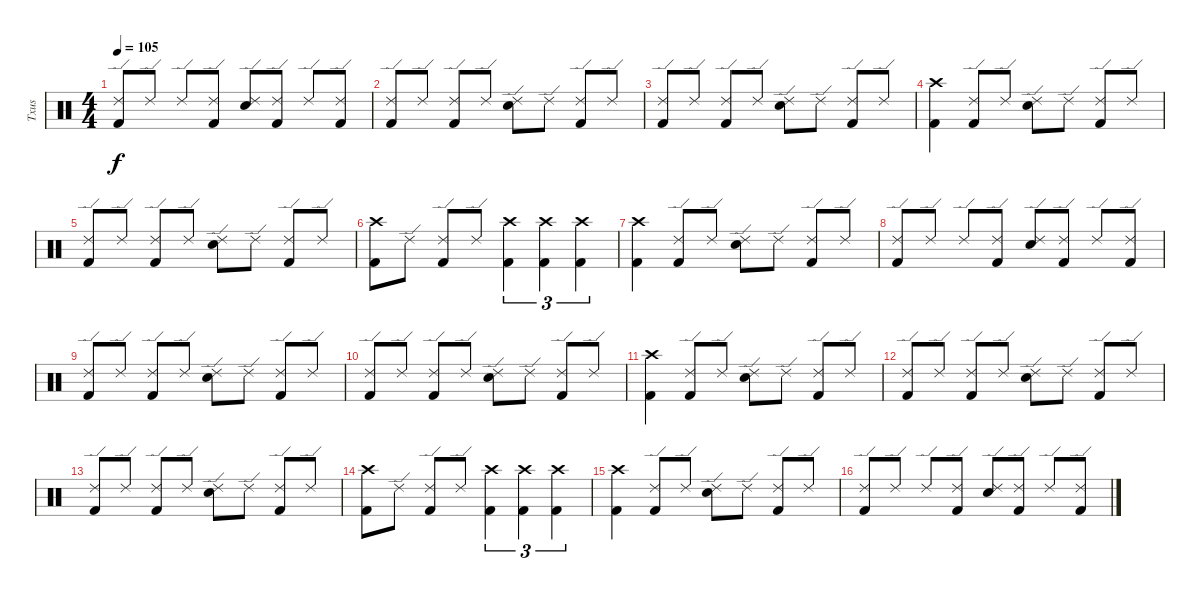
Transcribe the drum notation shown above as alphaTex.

\track ("Txus" "Txus") {instrument percussion}
\staff {score}
\articulation defaults
\ts (4 4)
\tempo 105
\clef neutral
\ks c
("Ride (edge) 2" "Kick (hit) 2").8{dy f} "Ride (edge) 2".8 "Ride (edge) 2".8 ("Ride (edge) 2" "Kick (hit) 2").8 ("Ride (edge) 2" "Electric Snare (hit)").8 ("Ride (edge) 2" "Kick (hit) 2").8 "Ride (edge) 2".8 ("Ride (edge) 2" "Kick (hit) 2").8 |
("Ride (edge) 2" "Kick (hit) 2").8 "Ride (edge) 2".8 ("Ride (edge) 2" "Kick (hit) 2").8 "Ride (edge) 2".8 ("Ride (edge) 2" "Electric Snare (hit)").8 "Ride (edge) 2".8 ("Ride (edge) 2" "Kick (hit) 2").8 "Ride (edge) 2".8 |
("Ride (edge) 2" "Kick (hit) 2").8 "Ride (edge) 2".8 ("Ride (edge) 2" "Kick (hit) 2").8 "Ride (edge) 2".8 ("Ride (edge) 2" "Electric Snare (hit)").8 "Ride (edge) 2".8 ("Ride (edge) 2" "Kick (hit) 2").8 "Ride (edge) 2".8 |
("Crash high (hit)" "Kick (hit) 2").4 ("Ride (edge) 2" "Kick (hit) 2").8 "Ride (edge) 2".8 ("Ride (edge) 2" "Electric Snare (hit)").8 "Ride (edge) 2".8 ("Ride (edge) 2" "Kick (hit) 2").8 "Ride (edge) 2".8 |
("Ride (edge) 2" "Kick (hit) 2").8 "Ride (edge) 2".8 ("Ride (edge) 2" "Kick (hit) 2").8 "Ride (edge) 2".8 ("Ride (edge) 2" "Electric Snare (hit)").8 "Ride (edge) 2".8 ("Ride (edge) 2" "Kick (hit) 2").8 "Ride (edge) 2".8 |
("Crash high (hit)" "Kick (hit) 2").8 "Ride (edge) 2".8 ("Ride (edge) 2" "Kick (hit) 2").8 "Ride (edge) 2".8 ("Crash high (hit)" "Kick (hit) 2").4{tu (3 2)} ("Crash high (hit)" "Kick (hit) 2").4{tu (3 2)} ("Crash high (hit)" "Kick (hit) 2").4{tu (3 2)} |
("Crash high (hit)" "Kick (hit) 2").4 ("Ride (edge) 2" "Kick (hit) 2").8 "Ride (edge) 2".8 ("Ride (edge) 2" "Electric Snare (hit)").8 "Ride (edge) 2".8 ("Ride (edge) 2" "Kick (hit) 2").8 "Ride (edge) 2".8 |
("Ride (edge) 2" "Kick (hit) 2").8 "Ride (edge) 2".8 "Ride (edge) 2".8 ("Ride (edge) 2" "Kick (hit) 2").8 ("Ride (edge) 2" "Electric Snare (hit)").8 ("Ride (edge) 2" "Kick (hit) 2").8 "Ride (edge) 2".8 ("Ride (edge) 2" "Kick (hit) 2").8 |
("Ride (edge) 2" "Kick (hit) 2").8 "Ride (edge) 2".8 ("Ride (edge) 2" "Kick (hit) 2").8 "Ride (edge) 2".8 ("Ride (edge) 2" "Electric Snare (hit)").8 "Ride (edge) 2".8 ("Ride (edge) 2" "Kick (hit) 2").8 "Ride (edge) 2".8 |
("Ride (edge) 2" "Kick (hit) 2").8 "Ride (edge) 2".8 ("Ride (edge) 2" "Kick (hit) 2").8 "Ride (edge) 2".8 ("Ride (edge) 2" "Electric Snare (hit)").8 "Ride (edge) 2".8 ("Ride (edge) 2" "Kick (hit) 2").8 "Ride (edge) 2".8 |
("Crash high (hit)" "Kick (hit) 2").4 ("Ride (edge) 2" "Kick (hit) 2").8 "Ride (edge) 2".8 ("Ride (edge) 2" "Electric Snare (hit)").8 "Ride (edge) 2".8 ("Ride (edge) 2" "Kick (hit) 2").8 "Ride (edge) 2".8 |
("Ride (edge) 2" "Kick (hit) 2").8 "Ride (edge) 2".8 ("Ride (edge) 2" "Kick (hit) 2").8 "Ride (edge) 2".8 ("Ride (edge) 2" "Electric Snare (hit)").8 "Ride (edge) 2".8 ("Ride (edge) 2" "Kick (hit) 2").8 "Ride (edge) 2".8 |
("Ride (edge) 2" "Kick (hit) 2").8 "Ride (edge) 2".8 ("Ride (edge) 2" "Kick (hit) 2").8 "Ride (edge) 2".8 ("Ride (edge) 2" "Electric Snare (hit)").8 "Ride (edge) 2".8 ("Ride (edge) 2" "Kick (hit) 2").8 "Ride (edge) 2".8 |
("Crash high (hit)" "Kick (hit) 2").8 "Ride (edge) 2".8 ("Ride (edge) 2" "Kick (hit) 2").8 "Ride (edge) 2".8 ("Crash high (hit)" "Kick (hit) 2").4{tu (3 2)} ("Crash high (hit)" "Kick (hit) 2").4{tu (3 2)} ("Crash high (hit)" "Kick (hit) 2").4{tu (3 2)} |
("Crash high (hit)" "Kick (hit) 2").4 ("Ride (edge) 2" "Kick (hit) 2").8 "Ride (edge) 2".8 ("Ride (edge) 2" "Electric Snare (hit)").8 "Ride (edge) 2".8 ("Ride (edge) 2" "Kick (hit) 2").8 "Ride (edge) 2".8 |
("Ride (edge) 2" "Kick (hit) 2").8 "Ride (edge) 2".8 "Ride (edge) 2".8 ("Ride (edge) 2" "Kick (hit) 2").8 ("Ride (edge) 2" "Electric Snare (hit)").8 ("Ride (edge) 2" "Kick (hit) 2").8 "Ride (edge) 2".8 ("Ride (edge) 2" "Kick (hit) 2").8
